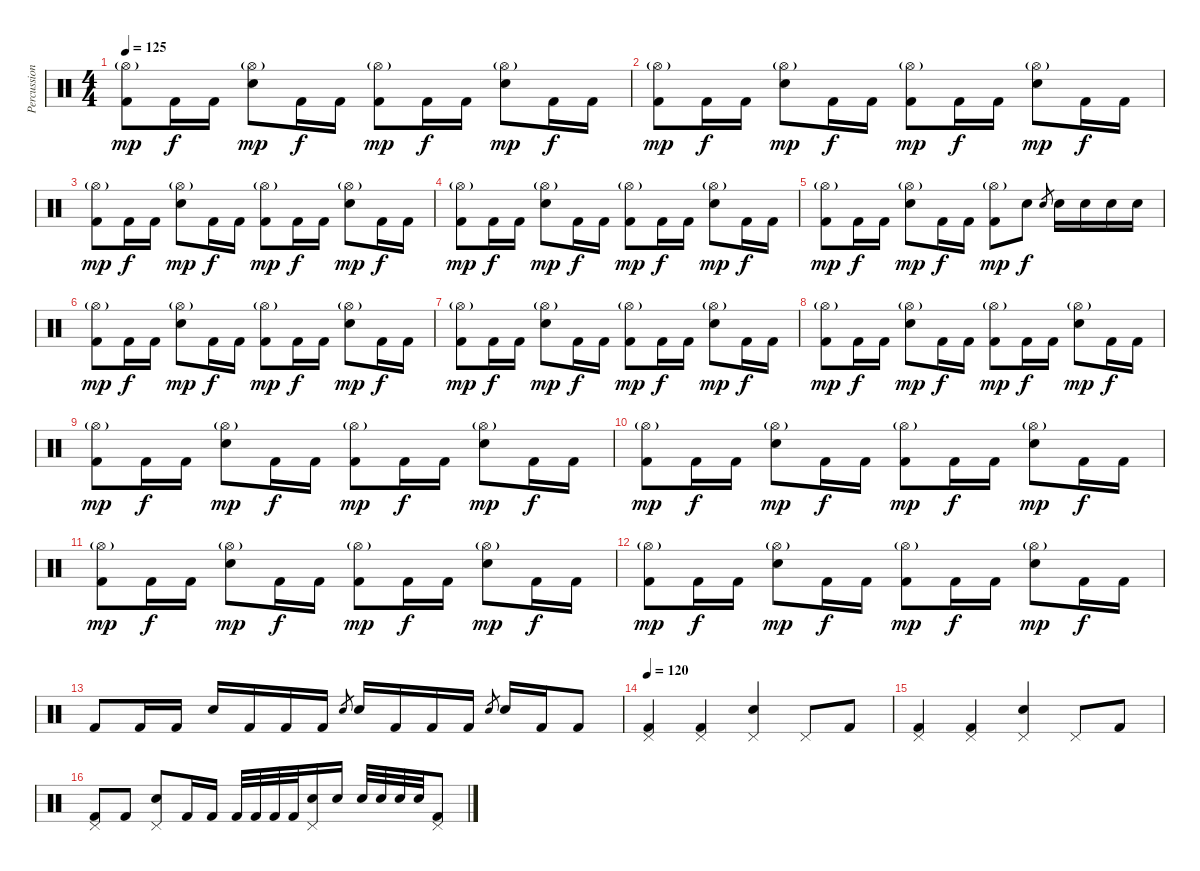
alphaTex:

\track ("Percussion" "Percussion") {instrument percussion}
\staff {score}
\articulation defaults
\ts (4 4)
\tempo 125
\clef neutral
\ks c
("Hi-Hat (open)"{g} "Kick (hit) 2").8{dy mp} "Kick (hit) 2".16{dy f} "Kick (hit) 2".16 ("Hi-Hat (open)"{g} "Electric Snare (hit)").8{dy mp} "Kick (hit) 2".16{dy f} "Kick (hit) 2".16 ("Hi-Hat (open)"{g} "Kick (hit) 2").8{dy mp} "Kick (hit) 2".16{dy f} "Kick (hit) 2".16 ("Hi-Hat (open)"{g} "Electric Snare (hit)").8{dy mp} "Kick (hit) 2".16{dy f} "Kick (hit) 2".16 |
("Hi-Hat (open)"{g} "Kick (hit) 2").8{dy mp} "Kick (hit) 2".16{dy f} "Kick (hit) 2".16 ("Hi-Hat (open)"{g} "Electric Snare (hit)").8{dy mp} "Kick (hit) 2".16{dy f} "Kick (hit) 2".16 ("Hi-Hat (open)"{g} "Kick (hit) 2").8{dy mp} "Kick (hit) 2".16{dy f} "Kick (hit) 2".16 ("Hi-Hat (open)"{g} "Electric Snare (hit)").8{dy mp} "Kick (hit) 2".16{dy f} "Kick (hit) 2".16 |
("Hi-Hat (open)"{g} "Kick (hit) 2").8{dy mp} "Kick (hit) 2".16{dy f} "Kick (hit) 2".16 ("Hi-Hat (open)"{g} "Electric Snare (hit)").8{dy mp} "Kick (hit) 2".16{dy f} "Kick (hit) 2".16 ("Hi-Hat (open)"{g} "Kick (hit) 2").8{dy mp} "Kick (hit) 2".16{dy f} "Kick (hit) 2".16 ("Hi-Hat (open)"{g} "Electric Snare (hit)").8{dy mp} "Kick (hit) 2".16{dy f} "Kick (hit) 2".16 |
("Hi-Hat (open)"{g} "Kick (hit) 2").8{dy mp} "Kick (hit) 2".16{dy f} "Kick (hit) 2".16 ("Hi-Hat (open)"{g} "Electric Snare (hit)").8{dy mp} "Kick (hit) 2".16{dy f} "Kick (hit) 2".16 ("Hi-Hat (open)"{g} "Kick (hit) 2").8{dy mp} "Kick (hit) 2".16{dy f} "Kick (hit) 2".16 ("Hi-Hat (open)"{g} "Electric Snare (hit)").8{dy mp} "Kick (hit) 2".16{dy f} "Kick (hit) 2".16 |
("Hi-Hat (open)"{g} "Kick (hit) 2").8{dy mp} "Kick (hit) 2".16{dy f} "Kick (hit) 2".16 ("Hi-Hat (open)"{g} "Electric Snare (hit)").8{dy mp} "Kick (hit) 2".16{dy f} "Kick (hit) 2".16 ("Hi-Hat (open)"{g} "Kick (hit) 2").8{dy mp} "Electric Snare (hit)".8{dy f} "Electric Snare (hit)".8{gr} "Electric Snare (hit)".16 "Electric Snare (hit)".16 "Electric Snare (hit)".16 "Electric Snare (hit)".16 |
("Hi-Hat (open)"{g} "Kick (hit) 2").8{dy mp} "Kick (hit) 2".16{dy f} "Kick (hit) 2".16 ("Hi-Hat (open)"{g} "Electric Snare (hit)").8{dy mp} "Kick (hit) 2".16{dy f} "Kick (hit) 2".16 ("Hi-Hat (open)"{g} "Kick (hit) 2").8{dy mp} "Kick (hit) 2".16{dy f} "Kick (hit) 2".16 ("Hi-Hat (open)"{g} "Electric Snare (hit)").8{dy mp} "Kick (hit) 2".16{dy f} "Kick (hit) 2".16 |
("Hi-Hat (open)"{g} "Kick (hit) 2").8{dy mp} "Kick (hit) 2".16{dy f} "Kick (hit) 2".16 ("Hi-Hat (open)"{g} "Electric Snare (hit)").8{dy mp} "Kick (hit) 2".16{dy f} "Kick (hit) 2".16 ("Hi-Hat (open)"{g} "Kick (hit) 2").8{dy mp} "Kick (hit) 2".16{dy f} "Kick (hit) 2".16 ("Hi-Hat (open)"{g} "Electric Snare (hit)").8{dy mp} "Kick (hit) 2".16{dy f} "Kick (hit) 2".16 |
("Hi-Hat (open)"{g} "Kick (hit) 2").8{dy mp} "Kick (hit) 2".16{dy f} "Kick (hit) 2".16 ("Hi-Hat (open)"{g} "Electric Snare (hit)").8{dy mp} "Kick (hit) 2".16{dy f} "Kick (hit) 2".16 ("Hi-Hat (open)"{g} "Kick (hit) 2").8{dy mp} "Kick (hit) 2".16{dy f} "Kick (hit) 2".16 ("Hi-Hat (open)"{g} "Electric Snare (hit)").8{dy mp} "Kick (hit) 2".16{dy f} "Kick (hit) 2".16 |
("Hi-Hat (open)"{g} "Kick (hit) 2").8{dy mp} "Kick (hit) 2".16{dy f} "Kick (hit) 2".16 ("Hi-Hat (open)"{g} "Electric Snare (hit)").8{dy mp} "Kick (hit) 2".16{dy f} "Kick (hit) 2".16 ("Hi-Hat (open)"{g} "Kick (hit) 2").8{dy mp} "Kick (hit) 2".16{dy f} "Kick (hit) 2".16 ("Hi-Hat (open)"{g} "Electric Snare (hit)").8{dy mp} "Kick (hit) 2".16{dy f} "Kick (hit) 2".16 |
("Hi-Hat (open)"{g} "Kick (hit) 2").8{dy mp} "Kick (hit) 2".16{dy f} "Kick (hit) 2".16 ("Hi-Hat (open)"{g} "Electric Snare (hit)").8{dy mp} "Kick (hit) 2".16{dy f} "Kick (hit) 2".16 ("Hi-Hat (open)"{g} "Kick (hit) 2").8{dy mp} "Kick (hit) 2".16{dy f} "Kick (hit) 2".16 ("Hi-Hat (open)"{g} "Electric Snare (hit)").8{dy mp} "Kick (hit) 2".16{dy f} "Kick (hit) 2".16 |
("Hi-Hat (open)"{g} "Kick (hit) 2").8{dy mp} "Kick (hit) 2".16{dy f} "Kick (hit) 2".16 ("Hi-Hat (open)"{g} "Electric Snare (hit)").8{dy mp} "Kick (hit) 2".16{dy f} "Kick (hit) 2".16 ("Hi-Hat (open)"{g} "Kick (hit) 2").8{dy mp} "Kick (hit) 2".16{dy f} "Kick (hit) 2".16 ("Hi-Hat (open)"{g} "Electric Snare (hit)").8{dy mp} "Kick (hit) 2".16{dy f} "Kick (hit) 2".16 |
("Hi-Hat (open)"{g} "Kick (hit) 2").8{dy mp} "Kick (hit) 2".16{dy f} "Kick (hit) 2".16 ("Hi-Hat (open)"{g} "Electric Snare (hit)").8{dy mp} "Kick (hit) 2".16{dy f} "Kick (hit) 2".16 ("Hi-Hat (open)"{g} "Kick (hit) 2").8{dy mp} "Kick (hit) 2".16{dy f} "Kick (hit) 2".16 ("Hi-Hat (open)"{g} "Electric Snare (hit)").8{dy mp} "Kick (hit) 2".16{dy f} "Kick (hit) 2".16 |
"Kick (hit) 2".8 "Kick (hit) 2".16 "Kick (hit) 2".16 "Electric Snare (hit)".16 "Kick (hit) 2".16 "Kick (hit) 2".16 "Kick (hit) 2".16 "Electric Snare (hit)".8{gr} "Electric Snare (hit)".16 "Kick (hit) 2".16 "Kick (hit) 2".16 "Kick (hit) 2".16 "Electric Snare (hit)".8{gr} "Electric Snare (hit)".16 "Kick (hit) 2".16 "Kick (hit) 2".8 |
\tempo 120
("Pedal Hi-Hat (hit)" "Kick (hit) 2").4 ("Pedal Hi-Hat (hit)" "Kick (hit) 2").4 ("Pedal Hi-Hat (hit)" "Electric Snare (hit)").4 "Pedal Hi-Hat (hit)".8 "Kick (hit) 2".8 |
("Pedal Hi-Hat (hit)" "Kick (hit) 2").4 ("Pedal Hi-Hat (hit)" "Kick (hit) 2").4 ("Pedal Hi-Hat (hit)" "Electric Snare (hit)").4 "Pedal Hi-Hat (hit)".8 "Kick (hit) 2".8 |
("Pedal Hi-Hat (hit)" "Kick (hit) 2").8 "Kick (hit) 2".8 ("Pedal Hi-Hat (hit)" "Electric Snare (hit)").8 "Kick (hit) 2".16 "Kick (hit) 2".16 "Kick (hit) 2".32 "Kick (hit) 2".32 "Kick (hit) 2".32 "Kick (hit) 2".32 ("Pedal Hi-Hat (hit)" "Electric Snare (hit)").16 "Electric Snare (hit)".16 "Electric Snare (hit)".32 "Electric Snare (hit)".32 "Electric Snare (hit)".32 "Electric Snare (hit)".32 ("Pedal Hi-Hat (hit)" "Kick (hit) 2").8
